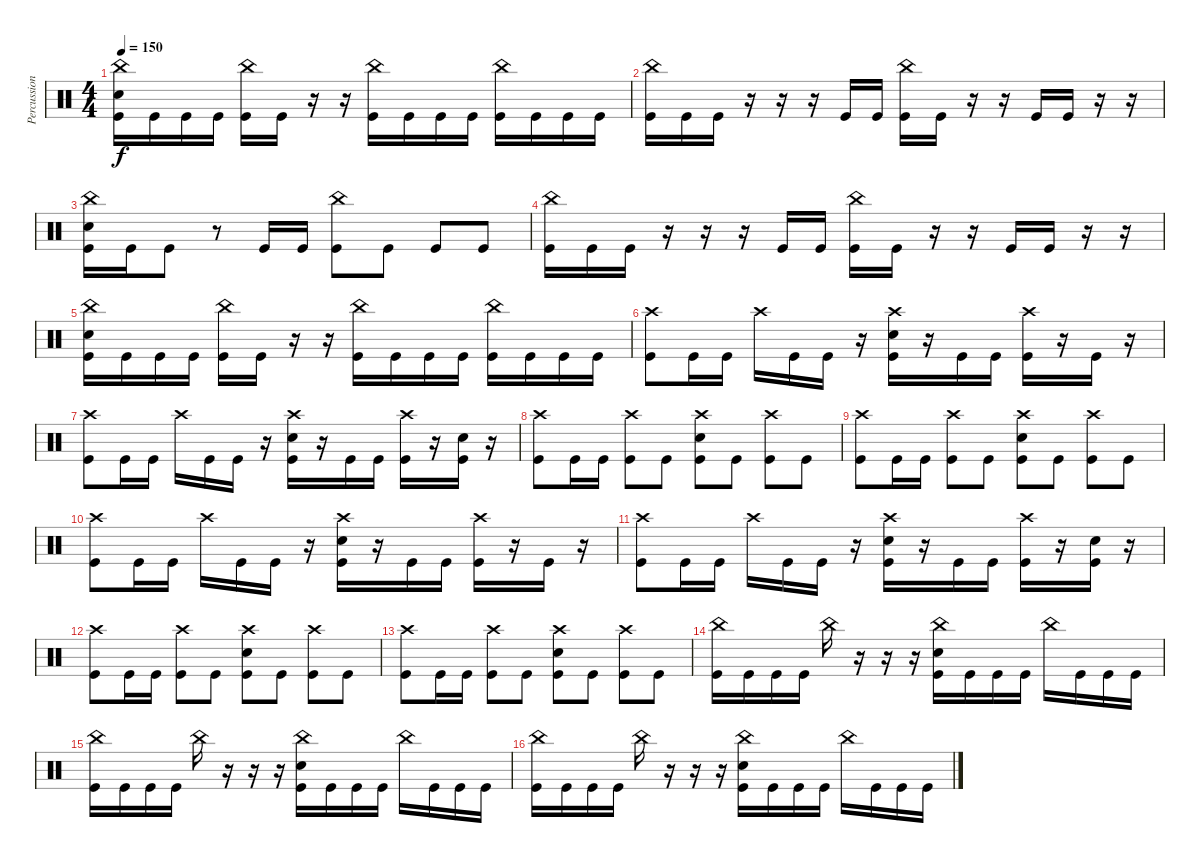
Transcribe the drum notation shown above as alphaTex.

\track ("Percussion" "Percussion") {instrument percussion}
\staff {score}
\articulation defaults
\ts (4 4)
\tempo 150
\clef neutral
\ks c
("China (hit)" "Electric Snare (hit)" "Kick (hit)").16{dy f} "Kick (hit)".16 "Kick (hit)".16 "Kick (hit)".16 ("China (hit)" "Kick (hit)").16 "Kick (hit)".16 r.16 r.16 ("China (hit)" "Kick (hit)").16 "Kick (hit)".16 "Kick (hit)".16 "Kick (hit)".16 ("China (hit)" "Kick (hit)").16 "Kick (hit)".16 "Kick (hit)".16 "Kick (hit)".16 |
("China (hit)" "Kick (hit)").16 "Kick (hit)".16 "Kick (hit)".16 r.16 r.16 r.16 "Kick (hit)".16 "Kick (hit)".16 ("China (hit)" "Kick (hit)").16 "Kick (hit)".16 r.16 r.16 "Kick (hit)".16 "Kick (hit)".16 r.16 r.16 |
("China (hit)" "Kick (hit)" "Electric Snare (hit)").16 "Kick (hit)".16 "Kick (hit)".8 r.8 "Kick (hit)".16 "Kick (hit)".16 ("China (hit)" "Kick (hit)").8 "Kick (hit)".8 "Kick (hit)".8 "Kick (hit)".8 |
("China (hit)" "Kick (hit)").16 "Kick (hit)".16 "Kick (hit)".16 r.16 r.16 r.16 "Kick (hit)".16 "Kick (hit)".16 ("China (hit)" "Kick (hit)").16 "Kick (hit)".16 r.16 r.16 "Kick (hit)".16 "Kick (hit)".16 r.16 r.16 |
("China (hit)" "Electric Snare (hit)" "Kick (hit)").16 "Kick (hit)".16 "Kick (hit)".16 "Kick (hit)".16 ("China (hit)" "Kick (hit)").16 "Kick (hit)".16 r.16 r.16 ("China (hit)" "Kick (hit)").16 "Kick (hit)".16 "Kick (hit)".16 "Kick (hit)".16 ("China (hit)" "Kick (hit)").16 "Kick (hit)".16 "Kick (hit)".16 "Kick (hit)".16 |
("Crash high (hit)" "Kick (hit)").8 "Kick (hit)".16 "Kick (hit)".16 "Crash high (hit)".16 "Kick (hit)".16 "Kick (hit)".16 r.16 ("Crash high (hit)" "Electric Snare (hit)" "Kick (hit)").16 r.16 "Kick (hit)".16 "Kick (hit)".16 ("Crash high (hit)" "Kick (hit)").16 r.16 "Kick (hit)".16 r.16 |
("Crash high (hit)" "Kick (hit)").8 "Kick (hit)".16 "Kick (hit)".16 "Crash high (hit)".16 "Kick (hit)".16 "Kick (hit)".16 r.16 ("Crash high (hit)" "Electric Snare (hit)" "Kick (hit)").16 r.16 "Kick (hit)".16 "Kick (hit)".16 ("Crash high (hit)" "Kick (hit)").16 r.16 ("Electric Snare (hit)" "Kick (hit)").16 r.16 |
("Crash high (hit)" "Kick (hit)").8 "Kick (hit)".16 "Kick (hit)".16 ("Crash high (hit)" "Kick (hit)").8 "Kick (hit)".8 ("Crash high (hit)" "Electric Snare (hit)" "Kick (hit)").8 "Kick (hit)".8 ("Crash high (hit)" "Kick (hit)").8 "Kick (hit)".8 |
("Crash high (hit)" "Kick (hit)").8 "Kick (hit)".16 "Kick (hit)".16 ("Crash high (hit)" "Kick (hit)").8 "Kick (hit)".8 ("Crash high (hit)" "Electric Snare (hit)" "Kick (hit)").8 "Kick (hit)".8 ("Crash high (hit)" "Kick (hit)").8 "Kick (hit)".8 |
("Crash high (hit)" "Kick (hit)").8 "Kick (hit)".16 "Kick (hit)".16 "Crash high (hit)".16 "Kick (hit)".16 "Kick (hit)".16 r.16 ("Crash high (hit)" "Electric Snare (hit)" "Kick (hit)").16 r.16 "Kick (hit)".16 "Kick (hit)".16 ("Crash high (hit)" "Kick (hit)").16 r.16 "Kick (hit)".16 r.16 |
("Crash high (hit)" "Kick (hit)").8 "Kick (hit)".16 "Kick (hit)".16 "Crash high (hit)".16 "Kick (hit)".16 "Kick (hit)".16 r.16 ("Crash high (hit)" "Electric Snare (hit)" "Kick (hit)").16 r.16 "Kick (hit)".16 "Kick (hit)".16 ("Crash high (hit)" "Kick (hit)").16 r.16 ("Electric Snare (hit)" "Kick (hit)").16 r.16 |
("Crash high (hit)" "Kick (hit)").8 "Kick (hit)".16 "Kick (hit)".16 ("Crash high (hit)" "Kick (hit)").8 "Kick (hit)".8 ("Crash high (hit)" "Electric Snare (hit)" "Kick (hit)").8 "Kick (hit)".8 ("Crash high (hit)" "Kick (hit)").8 "Kick (hit)".8 |
("Crash high (hit)" "Kick (hit)").8 "Kick (hit)".16 "Kick (hit)".16 ("Crash high (hit)" "Kick (hit)").8 "Kick (hit)".8 ("Crash high (hit)" "Electric Snare (hit)" "Kick (hit)").8 "Kick (hit)".8 ("Crash high (hit)" "Kick (hit)").8 "Kick (hit)".8 |
("China (hit)" "Kick (hit)").16 "Kick (hit)".16 "Kick (hit)".16 "Kick (hit)".16 "China (hit)".16 r.16 r.16 r.16 ("China (hit)" "Electric Snare (hit)" "Kick (hit)").16 "Kick (hit)".16 "Kick (hit)".16 "Kick (hit)".16 "China (hit)".16 "Kick (hit)".16 "Kick (hit)".16 "Kick (hit)".16 |
("China (hit)" "Kick (hit)").16 "Kick (hit)".16 "Kick (hit)".16 "Kick (hit)".16 "China (hit)".16 r.16 r.16 r.16 ("China (hit)" "Electric Snare (hit)" "Kick (hit)").16 "Kick (hit)".16 "Kick (hit)".16 "Kick (hit)".16 "China (hit)".16 "Kick (hit)".16 "Kick (hit)".16 "Kick (hit)".16 |
("China (hit)" "Kick (hit)").16 "Kick (hit)".16 "Kick (hit)".16 "Kick (hit)".16 "China (hit)".16 r.16 r.16 r.16 ("China (hit)" "Electric Snare (hit)" "Kick (hit)").16 "Kick (hit)".16 "Kick (hit)".16 "Kick (hit)".16 "China (hit)".16 "Kick (hit)".16 "Kick (hit)".16 "Kick (hit)".16
